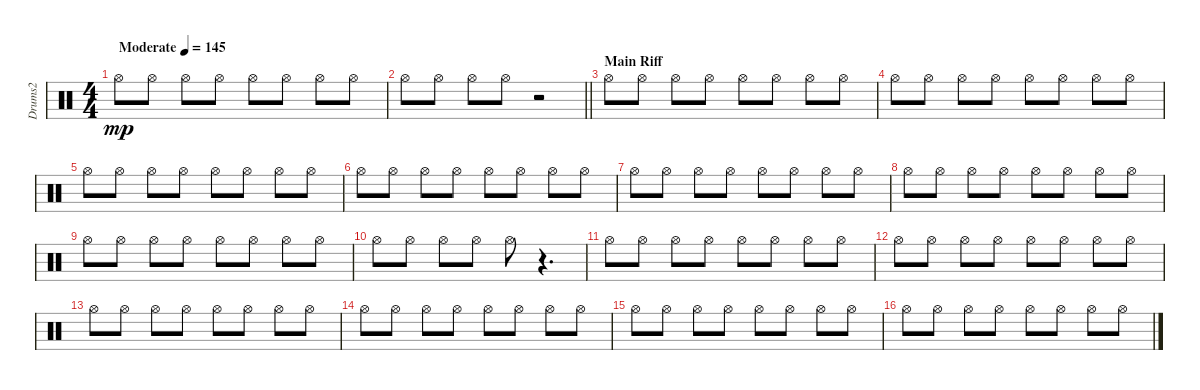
\track ("Drums2" "Drums2") {instrument percussion}
\staff {score}
\articulation defaults
\ts (4 4)
\tempo (145 "Moderate")
\clef neutral
\ks c "Hi-Hat (open)".8{dy mp} "Hi-Hat (open)".8 "Hi-Hat (open)".8 "Hi-Hat (open)".8 "Hi-Hat (open)".8 "Hi-Hat (open)".8 "Hi-Hat (open)".8 "Hi-Hat (open)".8
|
\barLineRight lightlight "Hi-Hat (open)".8 "Hi-Hat (open)".8 "Hi-Hat (open)".8 "Hi-Hat (open)".8
r.2 |
\section ("" "Main Riff")
"Hi-Hat (open)".8 "Hi-Hat (open)".8 "Hi-Hat (open)".8 "Hi-Hat (open)".8 "Hi-Hat (open)".8 "Hi-Hat (open)".8 "Hi-Hat (open)".8 "Hi-Hat (open)".8 |
"Hi-Hat (open)".8 "Hi-Hat (open)".8 "Hi-Hat (open)".8 "Hi-Hat (open)".8 "Hi-Hat (open)".8 "Hi-Hat (open)".8 "Hi-Hat (open)".8 "Hi-Hat (open)".8 |
"Hi-Hat (open)".8 "Hi-Hat (open)".8 "Hi-Hat (open)".8 "Hi-Hat (open)".8 "Hi-Hat (open)".8 "Hi-Hat (open)".8 "Hi-Hat (open)".8 "Hi-Hat (open)".8 |
"Hi-Hat (open)".8 "Hi-Hat (open)".8 "Hi-Hat (open)".8 "Hi-Hat (open)".8 "Hi-Hat (open)".8 "Hi-Hat (open)".8 "Hi-Hat (open)".8 "Hi-Hat (open)".8 |
"Hi-Hat (open)".8 "Hi-Hat (open)".8 "Hi-Hat (open)".8 "Hi-Hat (open)".8 "Hi-Hat (open)".8 "Hi-Hat (open)".8 "Hi-Hat (open)".8 "Hi-Hat (open)".8 |
"Hi-Hat (open)".8 "Hi-Hat (open)".8 "Hi-Hat (open)".8 "Hi-Hat (open)".8 "Hi-Hat (open)".8 "Hi-Hat (open)".8 "Hi-Hat (open)".8 "Hi-Hat (open)".8 |
"Hi-Hat (open)".8 "Hi-Hat (open)".8 "Hi-Hat (open)".8 "Hi-Hat (open)".8 "Hi-Hat (open)".8 "Hi-Hat (open)".8 "Hi-Hat (open)".8 "Hi-Hat (open)".8 |
"Hi-Hat (open)".8 "Hi-Hat (open)".8 "Hi-Hat (open)".8 "Hi-Hat (open)".8 "Hi-Hat (open)".8 r.4{d} |
"Hi-Hat (open)".8 "Hi-Hat (open)".8 "Hi-Hat (open)".8 "Hi-Hat (open)".8 "Hi-Hat (open)".8 "Hi-Hat (open)".8 "Hi-Hat (open)".8 "Hi-Hat (open)".8 |
"Hi-Hat (open)".8 "Hi-Hat (open)".8 "Hi-Hat (open)".8 "Hi-Hat (open)".8 "Hi-Hat (open)".8 "Hi-Hat (open)".8 "Hi-Hat (open)".8 "Hi-Hat (open)".8 |
"Hi-Hat (open)".8 "Hi-Hat (open)".8 "Hi-Hat (open)".8 "Hi-Hat (open)".8 "Hi-Hat (open)".8 "Hi-Hat (open)".8 "Hi-Hat (open)".8 "Hi-Hat (open)".8 |
"Hi-Hat (open)".8 "Hi-Hat (open)".8 "Hi-Hat (open)".8 "Hi-Hat (open)".8 "Hi-Hat (open)".8 "Hi-Hat (open)".8 "Hi-Hat (open)".8 "Hi-Hat (open)".8 |
"Hi-Hat (open)".8 "Hi-Hat (open)".8 "Hi-Hat (open)".8 "Hi-Hat (open)".8 "Hi-Hat (open)".8 "Hi-Hat (open)".8 "Hi-Hat (open)".8 "Hi-Hat (open)".8 |
"Hi-Hat (open)".8 "Hi-Hat (open)".8 "Hi-Hat (open)".8 "Hi-Hat (open)".8 "Hi-Hat (open)".8 "Hi-Hat (open)".8 "Hi-Hat (open)".8 "Hi-Hat (open)".8
